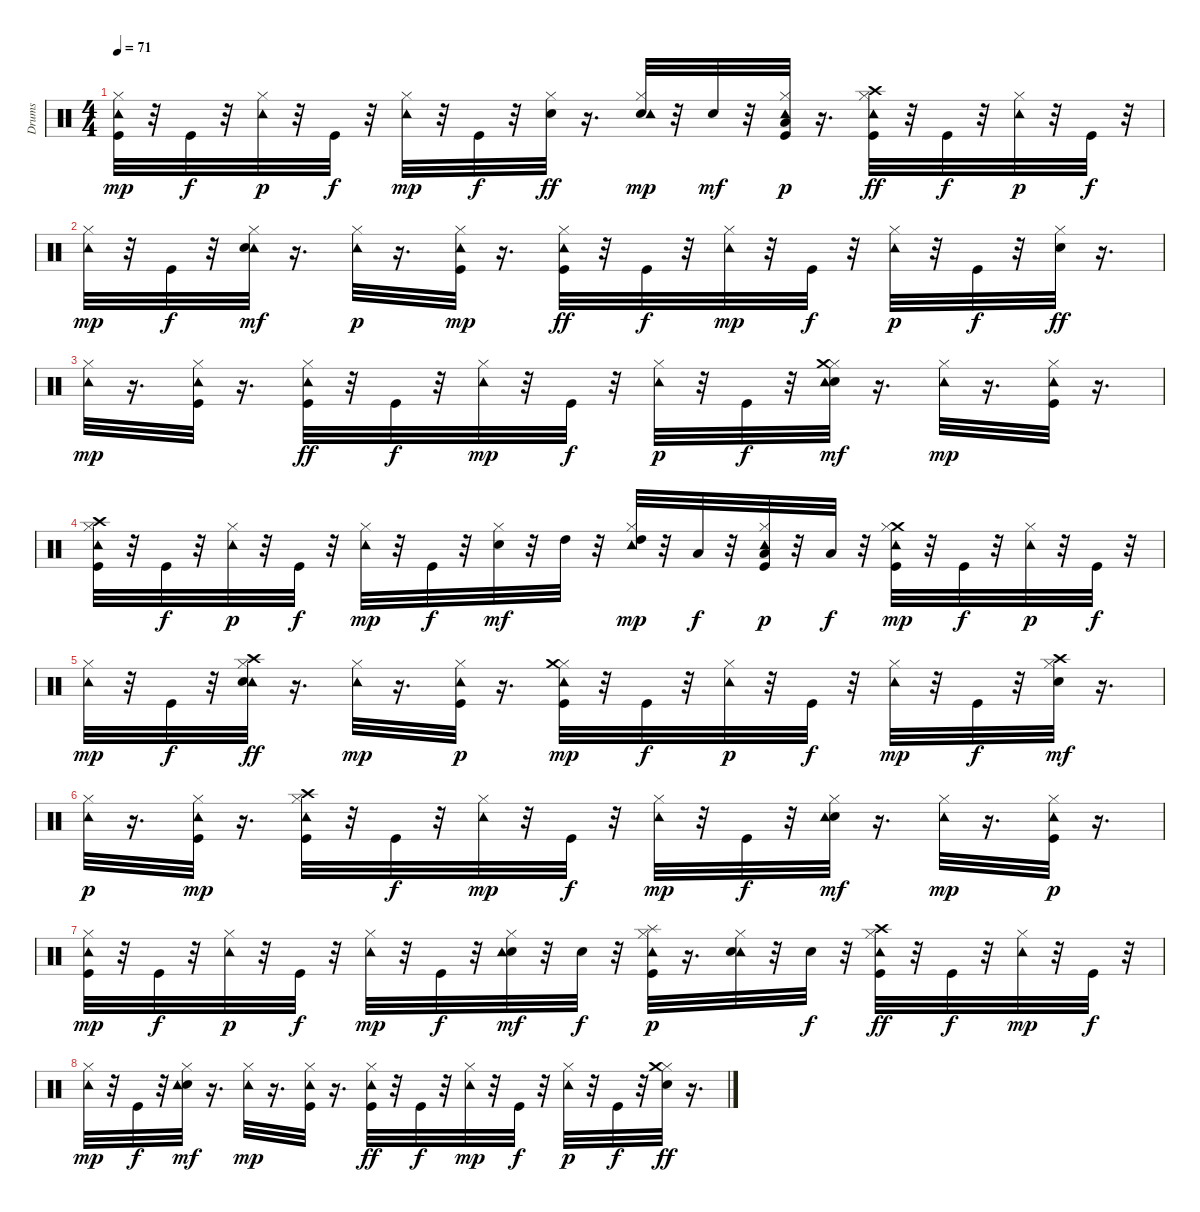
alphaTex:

\track ("Drums" "Drums") {instrument percussion}
\staff {score}
\articulation defaults
\ts (4 4)
\tempo 71
\clef neutral
\ks c
("Kick (hit)" "Tambourine (hit)" "Hi-Hat (closed)").32{dy mp} r.32 "Kick (hit)".32{dy f} r.32 ("Hi-Hat (closed)" "Tambourine (hit)").32{dy p} r.32 "Kick (hit)".32{dy f} r.32 ("Tambourine (hit)" "Hi-Hat (closed)").32{dy mp} r.32 "Kick (hit)".32{dy f} r.32 ("Hi-Hat (closed)" "Snare (hit) 2").32{dy ff} r.16{d} ("Snare (hit) 2" "Tambourine (hit)" "Hi-Hat (closed)").32{dy mp} r.32 "Snare (hit) 2".32{dy mf} r.32 ("Kick (hit)" "Low Tom (hit)" "Hi-Hat (closed)" "Tambourine (hit)").32{dy p} r.16{d} ("Tambourine (hit)" "Crash high (hit)" "Hi-Hat (closed)" "Kick (hit)").32{dy ff} r.32 "Kick (hit)".32{dy f} r.32 ("Hi-Hat (closed)" "Tambourine (hit)").32{dy p} r.32 "Kick (hit)".32{dy f} r.32 |
("Tambourine (hit)" "Hi-Hat (closed)").32{dy mp} r.32 "Kick (hit)".32{dy f} r.32 ("Tambourine (hit)" "Snare (hit) 2" "Hi-Hat (closed)").32{dy mf} r.16{d} ("Hi-Hat (closed)" "Tambourine (hit)").32{dy p} r.16{d} ("Kick (hit)" "Tambourine (hit)" "Hi-Hat (closed)").32{dy mp} r.16{d} ("Tambourine (hit)" "Hi-Hat (closed)" "Kick (hit)").32{dy ff} r.32 "Kick (hit)".32{dy f} r.32 ("Tambourine (hit)" "Hi-Hat (closed)").32{dy mp} r.32 "Kick (hit)".32{dy f} r.32 ("Hi-Hat (closed)" "Tambourine (hit)").32{dy p} r.32 "Kick (hit)".32{dy f} r.32 ("Hi-Hat (closed)" "Snare (hit) 2").32{dy ff} r.16{d} |
("Tambourine (hit)" "Hi-Hat (closed)").32{dy mp} r.16{d} ("Tambourine (hit)" "Hi-Hat (closed)" "Kick (hit)").32 r.16{d} ("Hi-Hat (closed)" "Tambourine (hit)" "Kick (hit)").32{dy ff} r.32 "Kick (hit)".32{dy f} r.32 ("Tambourine (hit)" "Hi-Hat (closed)").32{dy mp} r.32 "Kick (hit)".32{dy f} r.32 ("Hi-Hat (closed)" "Tambourine (hit)").32{dy p} r.32 "Kick (hit)".32{dy f} r.32 ("Hi-Hat (closed)" "Snare (hit) 2" "Crash medium (hit)" "Tambourine (hit)").32{dy mf} r.16{d} ("Tambourine (hit)" "Hi-Hat (closed)").32{dy mp} r.16{d} ("Tambourine (hit)" "Kick (hit)" "Hi-Hat (closed)").32 r.16{d} |
("Crash high (hit)" "Kick (hit)" "Hi-Hat (closed)" "Tambourine (hit)").32 r.32 "Kick (hit)".32{dy f} r.32 ("Hi-Hat (closed)" "Tambourine (hit)").32{dy p} r.32 "Kick (hit)".32{dy f} r.32 ("Tambourine (hit)" "Hi-Hat (closed)").32{dy mp} r.32 "Kick (hit)".32{dy f} r.32 ("Snare (hit) 2" "Hi-Hat (closed)").32{dy mf} r.32 "High Tom (hit)".32 r.32 ("High Tom (hit)" "Tambourine (hit)" "Hi-Hat (closed)").32{dy mp} r.32 "Low Tom (hit)".32{dy f} r.32 ("Low Tom (hit)" "Kick (hit)" "Hi-Hat (closed)" "Tambourine (hit)").32{dy p} r.32 "Low Floor Tom (hit)".32{dy f} r.32 ("Crash medium (hit)" "Hi-Hat (closed)" "Kick (hit)" "Tambourine (hit)").32{dy mp} r.32 "Kick (hit)".32{dy f} r.32 ("Hi-Hat (closed)" "Tambourine (hit)").32{dy p} r.32 "Kick (hit)".32{dy f} r.32 |
("Tambourine (hit)" "Hi-Hat (closed)").32{dy mp} r.32 "Kick (hit)".32{dy f} r.32 ("Tambourine (hit)" "Crash high (hit)" "Hi-Hat (closed)" "Snare (hit) 2").32{dy ff} r.16{d} ("Tambourine (hit)" "Hi-Hat (closed)").32{dy mp} r.16{d} ("Hi-Hat (closed)" "Tambourine (hit)" "Kick (hit)").32{dy p} r.16{d} ("Kick (hit)" "Hi-Hat (closed)" "Tambourine (hit)" "Crash medium (hit)").32{dy mp} r.32 "Kick (hit)".32{dy f} r.32 ("Hi-Hat (closed)" "Tambourine (hit)").32{dy p} r.32 "Kick (hit)".32{dy f} r.32 ("Tambourine (hit)" "Hi-Hat (closed)").32{dy mp} r.32 "Kick (hit)".32{dy f} r.32 ("Crash high (hit)" "Snare (hit) 2" "Hi-Hat (closed)").32{dy mf} r.16{d} |
("Hi-Hat (closed)" "Tambourine (hit)").32{dy p} r.16{d} ("Kick (hit)" "Tambourine (hit)" "Hi-Hat (closed)").32{dy mp} r.16{d} ("Kick (hit)" "Crash high (hit)" "Hi-Hat (closed)" "Tambourine (hit)").32 r.32 "Kick (hit)".32{dy f} r.32 ("Tambourine (hit)" "Hi-Hat (closed)").32{dy mp} r.32 "Kick (hit)".32{dy f} r.32 ("Tambourine (hit)" "Hi-Hat (closed)").32{dy mp} r.32 "Kick (hit)".32{dy f} r.32 ("Snare (hit) 2" "Tambourine (hit)" "Hi-Hat (closed)").32{dy mf} r.16{d} ("Tambourine (hit)" "Hi-Hat (closed)").32{dy mp} r.16{d} ("Hi-Hat (closed)" "Tambourine (hit)" "Kick (hit)").32{dy p} r.16{d} |
("Kick (hit)" "Hi-Hat (closed)" "Tambourine (hit)").32{dy mp} r.32 "Kick (hit)".32{dy f} r.32 ("Hi-Hat (closed)" "Tambourine (hit)").32{dy p} r.32 "Kick (hit)".32{dy f} r.32 ("Tambourine (hit)" "Hi-Hat (closed)").32{dy mp} r.32 "Kick (hit)".32{dy f} r.32 ("Snare (hit) 2" "Hi-Hat (closed)" "Tambourine (hit)").32{dy mf} r.32 "Snare (hit) 2".32{dy f} r.32 ("Kick (hit)" "Hi-Hat (closed)" "Splash (hit)" "Tambourine (hit)").32{dy p} r.16{d} ("Hi-Hat (closed)" "Tambourine (hit)" "Snare (hit) 2").32 r.32 "Snare (hit) 2".32{dy f} r.32 ("Crash high (hit)" "Hi-Hat (closed)" "Tambourine (hit)" "Kick (hit)").32{dy ff} r.32 "Kick (hit)".32{dy f} r.32 ("Tambourine (hit)" "Hi-Hat (closed)").32{dy mp} r.32 "Kick (hit)".32{dy f} r.32 |
("Tambourine (hit)" "Hi-Hat (closed)").32{dy mp} r.32 "Kick (hit)".32{dy f} r.32 ("Snare (hit) 2" "Tambourine (hit)" "Hi-Hat (closed)").32{dy mf} r.16{d} ("Tambourine (hit)" "Hi-Hat (closed)").32{dy mp} r.16{d} ("Kick (hit)" "Tambourine (hit)" "Hi-Hat (closed)").32 r.16{d} ("Tambourine (hit)" "Hi-Hat (closed)" "Kick (hit)").32{dy ff} r.32 "Kick (hit)".32{dy f} r.32 ("Tambourine (hit)" "Hi-Hat (closed)").32{dy mp} r.32 "Kick (hit)".32{dy f} r.32 ("Hi-Hat (closed)" "Tambourine (hit)").32{dy p} r.32 "Kick (hit)".32{dy f} r.32 ("Hi-Hat (closed)" "Crash medium (hit)" "Snare (hit) 2").32{dy ff} r.16{d}
